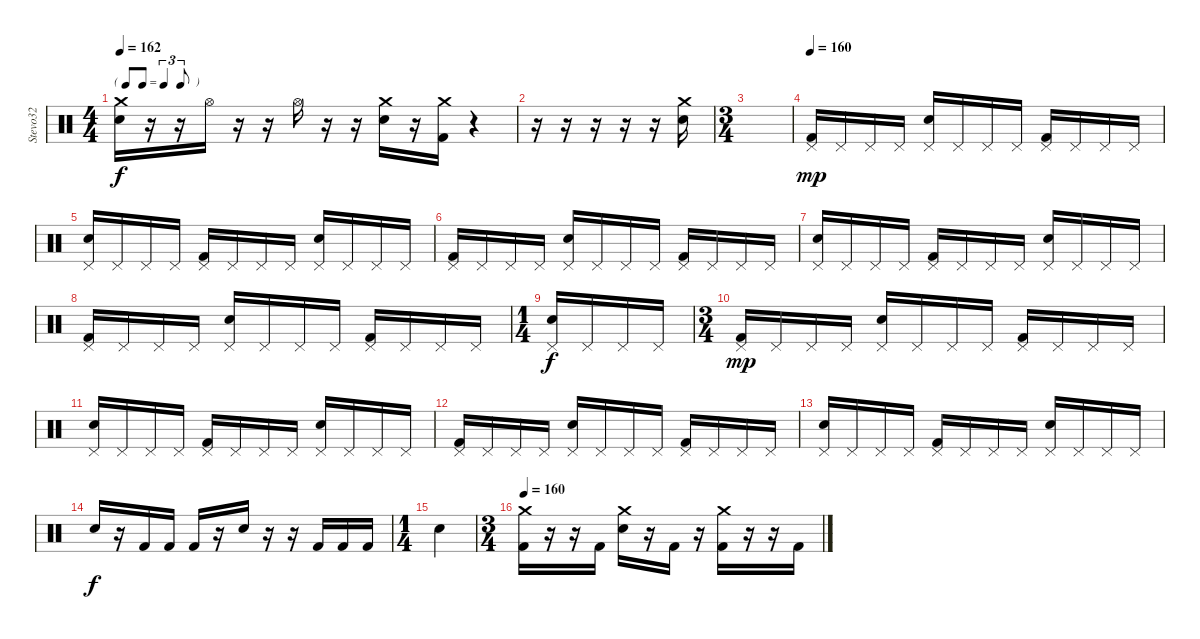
\track ("Stevo32                 drums" "Stevo32   ") {instrument percussion}
\staff {score}
\articulation defaults
\ts (4 4)
\tf triplet8th
\tempo 162
\tempo 120
\tempo 162
\clef neutral
\ks c
("Crash medium (hit)" "Electric Snare (hit)").16{dy f} r.16 r.16 "Hi-Hat (open)".16 r.16 r.16 "Hi-Hat (open)".16 r.16 r.16 ("Crash medium (hit)" "Electric Snare (hit)").16 r.16 ("Crash medium (hit)" "Kick (hit) 2").16 r.4 |
r.16 r.16 r.16 r.16 r.16 ("Crash medium (hit)" "Electric Snare (hit)").16 |
\ts (3 4)
|
\tempo 160
("Pedal Hi-Hat (hit)" "Kick (hit) 2").16{dy mp} "Pedal Hi-Hat (hit)".16 "Pedal Hi-Hat (hit)".16 "Pedal Hi-Hat (hit)".16 ("Pedal Hi-Hat (hit)" "Electric Snare (hit)").16 "Pedal Hi-Hat (hit)".16 "Pedal Hi-Hat (hit)".16 "Pedal Hi-Hat (hit)".16 ("Pedal Hi-Hat (hit)" "Kick (hit) 2").16 "Pedal Hi-Hat (hit)".16 "Pedal Hi-Hat (hit)".16 "Pedal Hi-Hat (hit)".16 |
("Pedal Hi-Hat (hit)" "Electric Snare (hit)").16 "Pedal Hi-Hat (hit)".16 "Pedal Hi-Hat (hit)".16 "Pedal Hi-Hat (hit)".16 ("Pedal Hi-Hat (hit)" "Kick (hit) 2").16 "Pedal Hi-Hat (hit)".16 "Pedal Hi-Hat (hit)".16 "Pedal Hi-Hat (hit)".16 ("Pedal Hi-Hat (hit)" "Electric Snare (hit)").16 "Pedal Hi-Hat (hit)".16 "Pedal Hi-Hat (hit)".16 "Pedal Hi-Hat (hit)".16 |
("Pedal Hi-Hat (hit)" "Kick (hit) 2").16 "Pedal Hi-Hat (hit)".16 "Pedal Hi-Hat (hit)".16 "Pedal Hi-Hat (hit)".16 ("Pedal Hi-Hat (hit)" "Electric Snare (hit)").16 "Pedal Hi-Hat (hit)".16 "Pedal Hi-Hat (hit)".16 "Pedal Hi-Hat (hit)".16 ("Pedal Hi-Hat (hit)" "Kick (hit) 2").16 "Pedal Hi-Hat (hit)".16 "Pedal Hi-Hat (hit)".16 "Pedal Hi-Hat (hit)".16 |
("Pedal Hi-Hat (hit)" "Electric Snare (hit)").16 "Pedal Hi-Hat (hit)".16 "Pedal Hi-Hat (hit)".16 "Pedal Hi-Hat (hit)".16 ("Pedal Hi-Hat (hit)" "Kick (hit) 2").16 "Pedal Hi-Hat (hit)".16 "Pedal Hi-Hat (hit)".16 "Pedal Hi-Hat (hit)".16 ("Pedal Hi-Hat (hit)" "Electric Snare (hit)").16 "Pedal Hi-Hat (hit)".16 "Pedal Hi-Hat (hit)".16 "Pedal Hi-Hat (hit)".16 |
("Pedal Hi-Hat (hit)" "Kick (hit) 2").16 "Pedal Hi-Hat (hit)".16 "Pedal Hi-Hat (hit)".16 "Pedal Hi-Hat (hit)".16 ("Pedal Hi-Hat (hit)" "Electric Snare (hit)").16 "Pedal Hi-Hat (hit)".16 "Pedal Hi-Hat (hit)".16 "Pedal Hi-Hat (hit)".16 ("Pedal Hi-Hat (hit)" "Kick (hit) 2").16 "Pedal Hi-Hat (hit)".16 "Pedal Hi-Hat (hit)".16 "Pedal Hi-Hat (hit)".16 |
\ts (1 4)
("Pedal Hi-Hat (hit)" "Electric Snare (hit)").16{dy f} "Pedal Hi-Hat (hit)".16 "Pedal Hi-Hat (hit)".16 "Pedal Hi-Hat (hit)".16 |
\ts (3 4)
("Pedal Hi-Hat (hit)" "Kick (hit) 2").16{dy mp} "Pedal Hi-Hat (hit)".16 "Pedal Hi-Hat (hit)".16 "Pedal Hi-Hat (hit)".16 ("Pedal Hi-Hat (hit)" "Electric Snare (hit)").16 "Pedal Hi-Hat (hit)".16 "Pedal Hi-Hat (hit)".16 "Pedal Hi-Hat (hit)".16 ("Pedal Hi-Hat (hit)" "Kick (hit) 2").16 "Pedal Hi-Hat (hit)".16 "Pedal Hi-Hat (hit)".16 "Pedal Hi-Hat (hit)".16 |
("Pedal Hi-Hat (hit)" "Electric Snare (hit)").16 "Pedal Hi-Hat (hit)".16 "Pedal Hi-Hat (hit)".16 "Pedal Hi-Hat (hit)".16 ("Pedal Hi-Hat (hit)" "Kick (hit) 2").16 "Pedal Hi-Hat (hit)".16 "Pedal Hi-Hat (hit)".16 "Pedal Hi-Hat (hit)".16 ("Pedal Hi-Hat (hit)" "Electric Snare (hit)").16 "Pedal Hi-Hat (hit)".16 "Pedal Hi-Hat (hit)".16 "Pedal Hi-Hat (hit)".16 |
("Pedal Hi-Hat (hit)" "Kick (hit) 2").16 "Pedal Hi-Hat (hit)".16 "Pedal Hi-Hat (hit)".16 "Pedal Hi-Hat (hit)".16 ("Pedal Hi-Hat (hit)" "Electric Snare (hit)").16 "Pedal Hi-Hat (hit)".16 "Pedal Hi-Hat (hit)".16 "Pedal Hi-Hat (hit)".16 ("Pedal Hi-Hat (hit)" "Kick (hit) 2").16 "Pedal Hi-Hat (hit)".16 "Pedal Hi-Hat (hit)".16 "Pedal Hi-Hat (hit)".16 |
("Pedal Hi-Hat (hit)" "Electric Snare (hit)").16 "Pedal Hi-Hat (hit)".16 "Pedal Hi-Hat (hit)".16 "Pedal Hi-Hat (hit)".16 ("Pedal Hi-Hat (hit)" "Kick (hit) 2").16 "Pedal Hi-Hat (hit)".16 "Pedal Hi-Hat (hit)".16 "Pedal Hi-Hat (hit)".16 ("Pedal Hi-Hat (hit)" "Electric Snare (hit)").16 "Pedal Hi-Hat (hit)".16 "Pedal Hi-Hat (hit)".16 "Pedal Hi-Hat (hit)".16 |
"Electric Snare (hit)".16{dy f} r.16 "Kick (hit) 2".16 "Kick (hit) 2".16 "Kick (hit) 2".16 r.16 "Electric Snare (hit)".16 r.16 r.16 "Kick (hit) 2".16 "Kick (hit) 2".16 "Kick (hit) 2".16 |
\ts (1 4)
"Electric Snare (hit)".4 |
\ts (3 4)
\tempo 160
("Crash medium (hit)" "Kick (hit) 2").16 r.16 r.16 "Kick (hit) 2".16 ("Crash medium (hit)" "Electric Snare (hit)").16 r.16 "Kick (hit) 2".16 r.16 ("Crash medium (hit)" "Kick (hit) 2").16 r.16 r.16 "Kick (hit) 2".16
